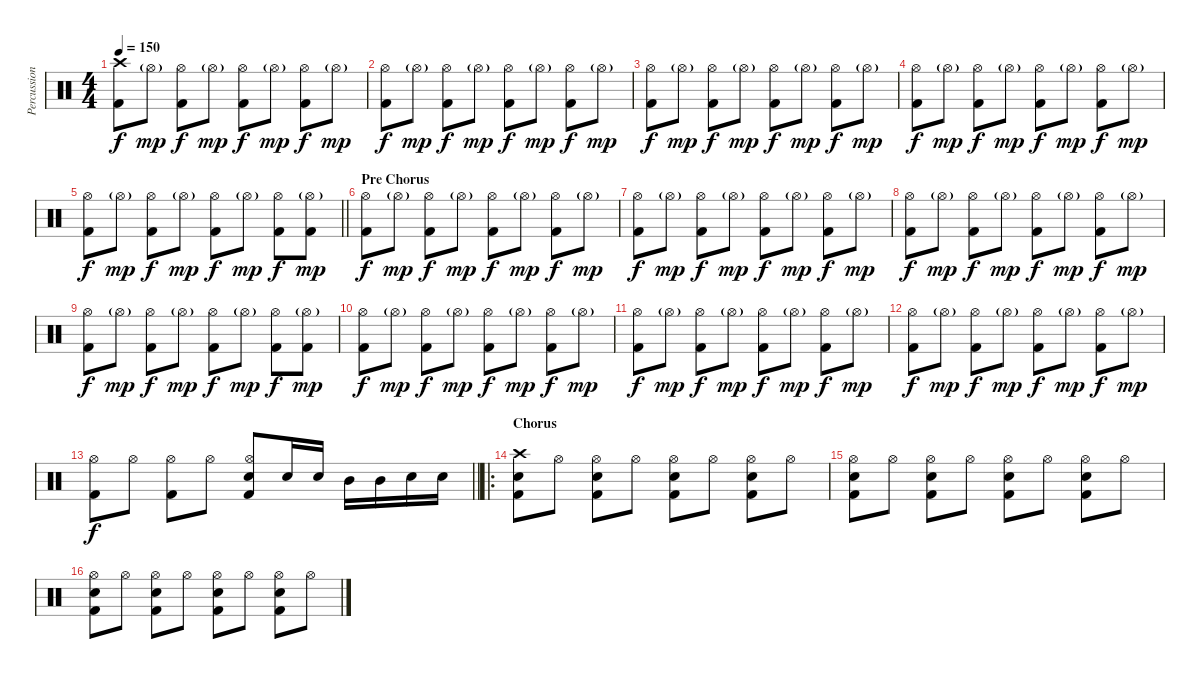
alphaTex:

\track ("Percussion" "Percussion") {instrument percussion}
\staff {score}
\articulation defaults
\ts (4 4)
\tempo 150
\clef neutral
\ks c
("Crash high (hit)" "Kick (hit) 2").8{dy f} "Hi-Hat (open)"{g}.8{dy mp} ("Hi-Hat (open)" "Kick (hit) 2").8{dy f} "Hi-Hat (open)"{g}.8{dy mp} ("Hi-Hat (open)" "Kick (hit) 2").8{dy f} "Hi-Hat (open)"{g}.8{dy mp} ("Hi-Hat (open)" "Kick (hit) 2").8{dy f} "Hi-Hat (open)"{g}.8{dy mp} |
("Hi-Hat (open)" "Kick (hit) 2").8{dy f} "Hi-Hat (open)"{g}.8{dy mp} ("Hi-Hat (open)" "Kick (hit) 2").8{dy f} "Hi-Hat (open)"{g}.8{dy mp} ("Hi-Hat (open)" "Kick (hit) 2").8{dy f} "Hi-Hat (open)"{g}.8{dy mp} ("Hi-Hat (open)" "Kick (hit) 2").8{dy f} "Hi-Hat (open)"{g}.8{dy mp} |
("Hi-Hat (open)" "Kick (hit) 2").8{dy f} "Hi-Hat (open)"{g}.8{dy mp} ("Hi-Hat (open)" "Kick (hit) 2").8{dy f} "Hi-Hat (open)"{g}.8{dy mp} ("Hi-Hat (open)" "Kick (hit) 2").8{dy f} "Hi-Hat (open)"{g}.8{dy mp} ("Hi-Hat (open)" "Kick (hit) 2").8{dy f} "Hi-Hat (open)"{g}.8{dy mp} |
("Hi-Hat (open)" "Kick (hit) 2").8{dy f} "Hi-Hat (open)"{g}.8{dy mp} ("Hi-Hat (open)" "Kick (hit) 2").8{dy f} "Hi-Hat (open)"{g}.8{dy mp} ("Hi-Hat (open)" "Kick (hit) 2").8{dy f} "Hi-Hat (open)"{g}.8{dy mp} ("Hi-Hat (open)" "Kick (hit) 2").8{dy f} "Hi-Hat (open)"{g}.8{dy mp} |
\barLineRight lightlight
("Hi-Hat (open)" "Kick (hit) 2").8{dy f} "Hi-Hat (open)"{g}.8{dy mp} ("Hi-Hat (open)" "Kick (hit) 2").8{dy f} "Hi-Hat (open)"{g}.8{dy mp} ("Hi-Hat (open)" "Kick (hit) 2").8{dy f} "Hi-Hat (open)"{g}.8{dy mp} ("Hi-Hat (open)" "Kick (hit) 2").8{dy f} ("Hi-Hat (open)"{g} "Kick (hit) 2").8{dy mp} |
\section ("" "Pre Chorus")
("Hi-Hat (open)" "Kick (hit) 2").8{dy f} "Hi-Hat (open)"{g}.8{dy mp} ("Hi-Hat (open)" "Kick (hit) 2").8{dy f} "Hi-Hat (open)"{g}.8{dy mp} ("Hi-Hat (open)" "Kick (hit) 2").8{dy f} "Hi-Hat (open)"{g}.8{dy mp} ("Hi-Hat (open)" "Kick (hit) 2").8{dy f} "Hi-Hat (open)"{g}.8{dy mp} |
("Hi-Hat (open)" "Kick (hit) 2").8{dy f} "Hi-Hat (open)"{g}.8{dy mp} ("Hi-Hat (open)" "Kick (hit) 2").8{dy f} "Hi-Hat (open)"{g}.8{dy mp} ("Hi-Hat (open)" "Kick (hit) 2").8{dy f} "Hi-Hat (open)"{g}.8{dy mp} ("Hi-Hat (open)" "Kick (hit) 2").8{dy f} "Hi-Hat (open)"{g}.8{dy mp} |
("Hi-Hat (open)" "Kick (hit) 2").8{dy f} "Hi-Hat (open)"{g}.8{dy mp} ("Hi-Hat (open)" "Kick (hit) 2").8{dy f} "Hi-Hat (open)"{g}.8{dy mp} ("Hi-Hat (open)" "Kick (hit) 2").8{dy f} "Hi-Hat (open)"{g}.8{dy mp} ("Hi-Hat (open)" "Kick (hit) 2").8{dy f} "Hi-Hat (open)"{g}.8{dy mp} |
("Hi-Hat (open)" "Kick (hit) 2").8{dy f} "Hi-Hat (open)"{g}.8{dy mp} ("Hi-Hat (open)" "Kick (hit) 2").8{dy f} "Hi-Hat (open)"{g}.8{dy mp} ("Hi-Hat (open)" "Kick (hit) 2").8{dy f} "Hi-Hat (open)"{g}.8{dy mp} ("Hi-Hat (open)" "Kick (hit) 2").8{dy f} ("Hi-Hat (open)"{g} "Kick (hit) 2").8{dy mp} |
("Hi-Hat (open)" "Kick (hit) 2").8{dy f} "Hi-Hat (open)"{g}.8{dy mp} ("Hi-Hat (open)" "Kick (hit) 2").8{dy f} "Hi-Hat (open)"{g}.8{dy mp} ("Hi-Hat (open)" "Kick (hit) 2").8{dy f} "Hi-Hat (open)"{g}.8{dy mp} ("Hi-Hat (open)" "Kick (hit) 2").8{dy f} "Hi-Hat (open)"{g}.8{dy mp} |
("Hi-Hat (open)" "Kick (hit) 2").8{dy f} "Hi-Hat (open)"{g}.8{dy mp} ("Hi-Hat (open)" "Kick (hit) 2").8{dy f} "Hi-Hat (open)"{g}.8{dy mp} ("Hi-Hat (open)" "Kick (hit) 2").8{dy f} "Hi-Hat (open)"{g}.8{dy mp} ("Hi-Hat (open)" "Kick (hit) 2").8{dy f} "Hi-Hat (open)"{g}.8{dy mp} |
("Hi-Hat (open)" "Kick (hit) 2").8{dy f} "Hi-Hat (open)"{g}.8{dy mp} ("Hi-Hat (open)" "Kick (hit) 2").8{dy f} "Hi-Hat (open)"{g}.8{dy mp} ("Hi-Hat (open)" "Kick (hit) 2").8{dy f} "Hi-Hat (open)"{g}.8{dy mp} ("Hi-Hat (open)" "Kick (hit) 2").8{dy f} "Hi-Hat (open)"{g}.8{dy mp} |
\barLineRight lightlight
("Hi-Hat (open)" "Kick (hit) 2").8{dy f} "Hi-Hat (open)".8 ("Hi-Hat (open)" "Kick (hit) 2").8 "Hi-Hat (open)".8 ("Hi-Hat (open)" "Snare (hit) 2" "Kick (hit) 2").8 "Snare (hit) 2".16 "Snare (hit) 2".16 "Mid Tom (hit)".16 "Mid Tom (hit)".16 "Snare (hit) 2".16 "Snare (hit) 2".16 |
\ro
\section ("" "Chorus")
("Crash high (hit)" "Snare (hit) 2" "Kick (hit) 2").8 "Hi-Hat (open)".8 ("Hi-Hat (open)" "Snare (hit) 2" "Kick (hit) 2").8 "Hi-Hat (open)".8 ("Hi-Hat (open)" "Snare (hit) 2" "Kick (hit) 2").8 "Hi-Hat (open)".8 ("Hi-Hat (open)" "Snare (hit) 2" "Kick (hit) 2").8 "Hi-Hat (open)".8 |
("Hi-Hat (open)" "Snare (hit) 2" "Kick (hit) 2").8 "Hi-Hat (open)".8 ("Hi-Hat (open)" "Snare (hit) 2" "Kick (hit) 2").8 "Hi-Hat (open)".8 ("Hi-Hat (open)" "Snare (hit) 2" "Kick (hit) 2").8 "Hi-Hat (open)".8 ("Hi-Hat (open)" "Snare (hit) 2" "Kick (hit) 2").8 "Hi-Hat (open)".8 |
("Hi-Hat (open)" "Snare (hit) 2" "Kick (hit) 2").8 "Hi-Hat (open)".8 ("Hi-Hat (open)" "Snare (hit) 2" "Kick (hit) 2").8 "Hi-Hat (open)".8 ("Hi-Hat (open)" "Snare (hit) 2" "Kick (hit) 2").8 "Hi-Hat (open)".8 ("Hi-Hat (open)" "Snare (hit) 2" "Kick (hit) 2").8 "Hi-Hat (open)".8
